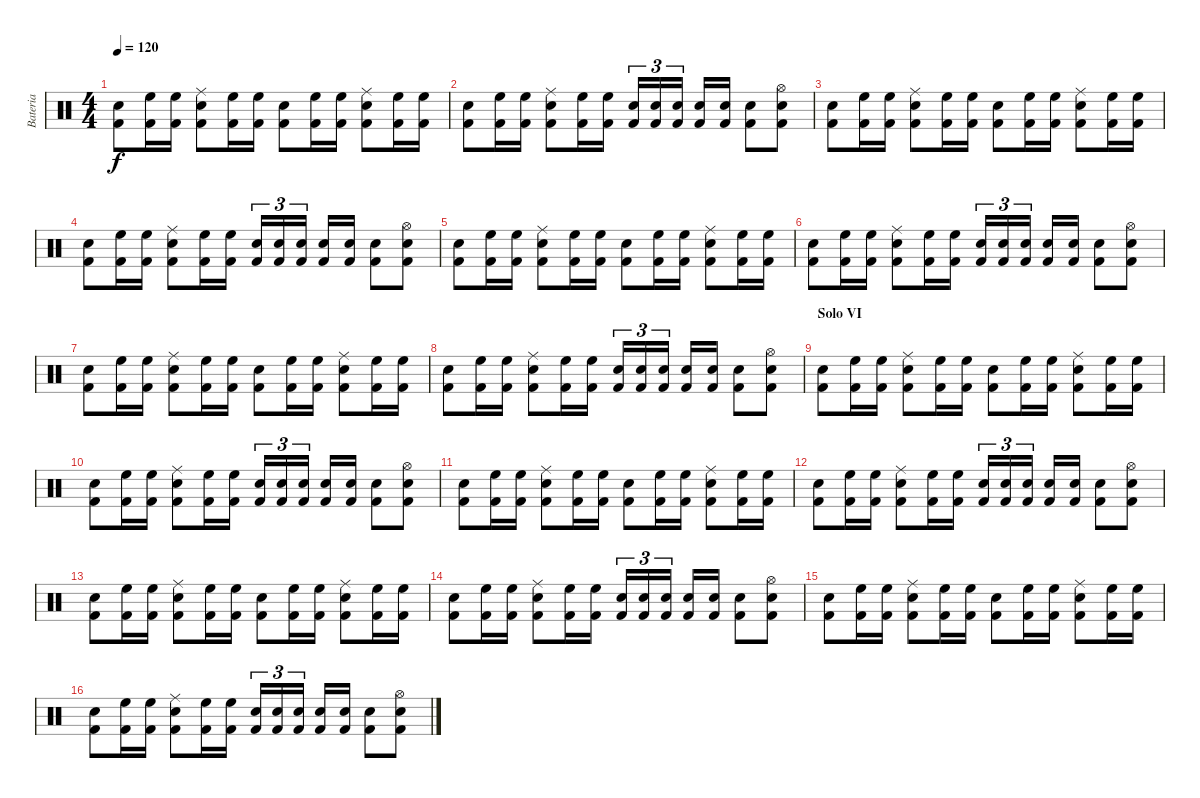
\track ("Bateria" "Bateria") {instrument percussion}
\staff {score}
\articulation defaults
\ts (4 4)
\tempo 120
\clef neutral
\ks c
("Snare (hit) 2" "Kick (hit) 2").8{dy f} ("High Floor Tom (hit)" "Kick (hit) 2").16 ("High Floor Tom (hit)" "Kick (hit) 2").16 ("Ride (middle)" "Snare (hit) 2" "Kick (hit) 2").8 ("High Floor Tom (hit)" "Kick (hit) 2").16 ("High Floor Tom (hit)" "Kick (hit) 2").16 ("Snare (hit) 2" "Kick (hit) 2").8 ("High Floor Tom (hit)" "Kick (hit) 2").16 ("High Floor Tom (hit)" "Kick (hit) 2").16 ("Ride (middle)" "Snare (hit) 2" "Kick (hit) 2").8 ("High Floor Tom (hit)" "Kick (hit) 2").16 ("High Floor Tom (hit)" "Kick (hit) 2").16 |
("Snare (hit) 2" "Kick (hit) 2").8 ("High Floor Tom (hit)" "Kick (hit) 2").16 ("High Floor Tom (hit)" "Kick (hit) 2").16 ("Ride (middle)" "Snare (hit) 2" "Kick (hit) 2").8 ("High Floor Tom (hit)" "Kick (hit) 2").16 ("High Floor Tom (hit)" "Kick (hit) 2").16 ("Snare (hit) 2" "Kick (hit) 2").16{tu (3 2)} ("Snare (hit) 2" "Kick (hit) 2").16{tu (3 2)} ("Snare (hit) 2" "Kick (hit) 2").16{tu (3 2)} ("Snare (hit) 2" "Kick (hit) 2").16 ("Snare (hit) 2" "Kick (hit) 2").16 ("Snare (hit) 2" "Kick (hit) 2").8 ("Hi-Hat (open)" "Snare (hit) 2" "Kick (hit) 2").8 |
("Snare (hit) 2" "Kick (hit) 2").8 ("High Floor Tom (hit)" "Kick (hit) 2").16 ("High Floor Tom (hit)" "Kick (hit) 2").16 ("Ride (middle)" "Snare (hit) 2" "Kick (hit) 2").8 ("High Floor Tom (hit)" "Kick (hit) 2").16 ("High Floor Tom (hit)" "Kick (hit) 2").16 ("Snare (hit) 2" "Kick (hit) 2").8 ("High Floor Tom (hit)" "Kick (hit) 2").16 ("High Floor Tom (hit)" "Kick (hit) 2").16 ("Ride (middle)" "Snare (hit) 2" "Kick (hit) 2").8 ("High Floor Tom (hit)" "Kick (hit) 2").16 ("High Floor Tom (hit)" "Kick (hit) 2").16 |
("Snare (hit) 2" "Kick (hit) 2").8 ("High Floor Tom (hit)" "Kick (hit) 2").16 ("High Floor Tom (hit)" "Kick (hit) 2").16 ("Ride (middle)" "Snare (hit) 2" "Kick (hit) 2").8 ("High Floor Tom (hit)" "Kick (hit) 2").16 ("High Floor Tom (hit)" "Kick (hit) 2").16 ("Snare (hit) 2" "Kick (hit) 2").16{tu (3 2)} ("Snare (hit) 2" "Kick (hit) 2").16{tu (3 2)} ("Snare (hit) 2" "Kick (hit) 2").16{tu (3 2)} ("Snare (hit) 2" "Kick (hit) 2").16 ("Snare (hit) 2" "Kick (hit) 2").16 ("Snare (hit) 2" "Kick (hit) 2").8 ("Hi-Hat (open)" "Snare (hit) 2" "Kick (hit) 2").8 |
("Snare (hit) 2" "Kick (hit) 2").8 ("High Floor Tom (hit)" "Kick (hit) 2").16 ("High Floor Tom (hit)" "Kick (hit) 2").16 ("Ride (middle)" "Snare (hit) 2" "Kick (hit) 2").8 ("High Floor Tom (hit)" "Kick (hit) 2").16 ("High Floor Tom (hit)" "Kick (hit) 2").16 ("Snare (hit) 2" "Kick (hit) 2").8 ("High Floor Tom (hit)" "Kick (hit) 2").16 ("High Floor Tom (hit)" "Kick (hit) 2").16 ("Ride (middle)" "Snare (hit) 2" "Kick (hit) 2").8 ("High Floor Tom (hit)" "Kick (hit) 2").16 ("High Floor Tom (hit)" "Kick (hit) 2").16 |
("Snare (hit) 2" "Kick (hit) 2").8 ("High Floor Tom (hit)" "Kick (hit) 2").16 ("High Floor Tom (hit)" "Kick (hit) 2").16 ("Ride (middle)" "Snare (hit) 2" "Kick (hit) 2").8 ("High Floor Tom (hit)" "Kick (hit) 2").16 ("High Floor Tom (hit)" "Kick (hit) 2").16 ("Snare (hit) 2" "Kick (hit) 2").16{tu (3 2)} ("Snare (hit) 2" "Kick (hit) 2").16{tu (3 2)} ("Snare (hit) 2" "Kick (hit) 2").16{tu (3 2)} ("Snare (hit) 2" "Kick (hit) 2").16 ("Snare (hit) 2" "Kick (hit) 2").16 ("Snare (hit) 2" "Kick (hit) 2").8 ("Hi-Hat (open)" "Snare (hit) 2" "Kick (hit) 2").8 |
("Snare (hit) 2" "Kick (hit) 2").8 ("High Floor Tom (hit)" "Kick (hit) 2").16 ("High Floor Tom (hit)" "Kick (hit) 2").16 ("Ride (middle)" "Snare (hit) 2" "Kick (hit) 2").8 ("High Floor Tom (hit)" "Kick (hit) 2").16 ("High Floor Tom (hit)" "Kick (hit) 2").16 ("Snare (hit) 2" "Kick (hit) 2").8 ("High Floor Tom (hit)" "Kick (hit) 2").16 ("High Floor Tom (hit)" "Kick (hit) 2").16 ("Ride (middle)" "Snare (hit) 2" "Kick (hit) 2").8 ("High Floor Tom (hit)" "Kick (hit) 2").16 ("High Floor Tom (hit)" "Kick (hit) 2").16 |
("Snare (hit) 2" "Kick (hit) 2").8 ("High Floor Tom (hit)" "Kick (hit) 2").16 ("High Floor Tom (hit)" "Kick (hit) 2").16 ("Ride (middle)" "Snare (hit) 2" "Kick (hit) 2").8 ("High Floor Tom (hit)" "Kick (hit) 2").16 ("High Floor Tom (hit)" "Kick (hit) 2").16 ("Snare (hit) 2" "Kick (hit) 2").16{tu (3 2)} ("Snare (hit) 2" "Kick (hit) 2").16{tu (3 2)} ("Snare (hit) 2" "Kick (hit) 2").16{tu (3 2)} ("Snare (hit) 2" "Kick (hit) 2").16 ("Snare (hit) 2" "Kick (hit) 2").16 ("Snare (hit) 2" "Kick (hit) 2").8 ("Hi-Hat (open)" "Snare (hit) 2" "Kick (hit) 2").8 |
\section ("" "Solo VI")
("Snare (hit) 2" "Kick (hit) 2").8 ("High Floor Tom (hit)" "Kick (hit) 2").16 ("High Floor Tom (hit)" "Kick (hit) 2").16 ("Ride (middle)" "Snare (hit) 2" "Kick (hit) 2").8 ("High Floor Tom (hit)" "Kick (hit) 2").16 ("High Floor Tom (hit)" "Kick (hit) 2").16 ("Snare (hit) 2" "Kick (hit) 2").8 ("High Floor Tom (hit)" "Kick (hit) 2").16 ("High Floor Tom (hit)" "Kick (hit) 2").16 ("Ride (middle)" "Snare (hit) 2" "Kick (hit) 2").8 ("High Floor Tom (hit)" "Kick (hit) 2").16 ("High Floor Tom (hit)" "Kick (hit) 2").16 |
("Snare (hit) 2" "Kick (hit) 2").8 ("High Floor Tom (hit)" "Kick (hit) 2").16 ("High Floor Tom (hit)" "Kick (hit) 2").16 ("Ride (middle)" "Snare (hit) 2" "Kick (hit) 2").8 ("High Floor Tom (hit)" "Kick (hit) 2").16 ("High Floor Tom (hit)" "Kick (hit) 2").16 ("Snare (hit) 2" "Kick (hit) 2").16{tu (3 2)} ("Snare (hit) 2" "Kick (hit) 2").16{tu (3 2)} ("Snare (hit) 2" "Kick (hit) 2").16{tu (3 2)} ("Snare (hit) 2" "Kick (hit) 2").16 ("Snare (hit) 2" "Kick (hit) 2").16 ("Snare (hit) 2" "Kick (hit) 2").8 ("Hi-Hat (open)" "Snare (hit) 2" "Kick (hit) 2").8 |
("Snare (hit) 2" "Kick (hit) 2").8 ("High Floor Tom (hit)" "Kick (hit) 2").16 ("High Floor Tom (hit)" "Kick (hit) 2").16 ("Ride (middle)" "Snare (hit) 2" "Kick (hit) 2").8 ("High Floor Tom (hit)" "Kick (hit) 2").16 ("High Floor Tom (hit)" "Kick (hit) 2").16 ("Snare (hit) 2" "Kick (hit) 2").8 ("High Floor Tom (hit)" "Kick (hit) 2").16 ("High Floor Tom (hit)" "Kick (hit) 2").16 ("Ride (middle)" "Snare (hit) 2" "Kick (hit) 2").8 ("High Floor Tom (hit)" "Kick (hit) 2").16 ("High Floor Tom (hit)" "Kick (hit) 2").16 |
("Snare (hit) 2" "Kick (hit) 2").8 ("High Floor Tom (hit)" "Kick (hit) 2").16 ("High Floor Tom (hit)" "Kick (hit) 2").16 ("Ride (middle)" "Snare (hit) 2" "Kick (hit) 2").8 ("High Floor Tom (hit)" "Kick (hit) 2").16 ("High Floor Tom (hit)" "Kick (hit) 2").16 ("Snare (hit) 2" "Kick (hit) 2").16{tu (3 2)} ("Snare (hit) 2" "Kick (hit) 2").16{tu (3 2)} ("Snare (hit) 2" "Kick (hit) 2").16{tu (3 2)} ("Snare (hit) 2" "Kick (hit) 2").16 ("Snare (hit) 2" "Kick (hit) 2").16 ("Snare (hit) 2" "Kick (hit) 2").8 ("Hi-Hat (open)" "Snare (hit) 2" "Kick (hit) 2").8 |
("Snare (hit) 2" "Kick (hit) 2").8 ("High Floor Tom (hit)" "Kick (hit) 2").16 ("High Floor Tom (hit)" "Kick (hit) 2").16 ("Ride (middle)" "Snare (hit) 2" "Kick (hit) 2").8 ("High Floor Tom (hit)" "Kick (hit) 2").16 ("High Floor Tom (hit)" "Kick (hit) 2").16 ("Snare (hit) 2" "Kick (hit) 2").8 ("High Floor Tom (hit)" "Kick (hit) 2").16 ("High Floor Tom (hit)" "Kick (hit) 2").16 ("Ride (middle)" "Snare (hit) 2" "Kick (hit) 2").8 ("High Floor Tom (hit)" "Kick (hit) 2").16 ("High Floor Tom (hit)" "Kick (hit) 2").16 |
("Snare (hit) 2" "Kick (hit) 2").8 ("High Floor Tom (hit)" "Kick (hit) 2").16 ("High Floor Tom (hit)" "Kick (hit) 2").16 ("Ride (middle)" "Snare (hit) 2" "Kick (hit) 2").8 ("High Floor Tom (hit)" "Kick (hit) 2").16 ("High Floor Tom (hit)" "Kick (hit) 2").16 ("Snare (hit) 2" "Kick (hit) 2").16{tu (3 2)} ("Snare (hit) 2" "Kick (hit) 2").16{tu (3 2)} ("Snare (hit) 2" "Kick (hit) 2").16{tu (3 2)} ("Snare (hit) 2" "Kick (hit) 2").16 ("Snare (hit) 2" "Kick (hit) 2").16 ("Snare (hit) 2" "Kick (hit) 2").8 ("Hi-Hat (open)" "Snare (hit) 2" "Kick (hit) 2").8 |
("Snare (hit) 2" "Kick (hit) 2").8 ("High Floor Tom (hit)" "Kick (hit) 2").16 ("High Floor Tom (hit)" "Kick (hit) 2").16 ("Ride (middle)" "Snare (hit) 2" "Kick (hit) 2").8 ("High Floor Tom (hit)" "Kick (hit) 2").16 ("High Floor Tom (hit)" "Kick (hit) 2").16 ("Snare (hit) 2" "Kick (hit) 2").8 ("High Floor Tom (hit)" "Kick (hit) 2").16 ("High Floor Tom (hit)" "Kick (hit) 2").16 ("Ride (middle)" "Snare (hit) 2" "Kick (hit) 2").8 ("High Floor Tom (hit)" "Kick (hit) 2").16 ("High Floor Tom (hit)" "Kick (hit) 2").16 |
("Snare (hit) 2" "Kick (hit) 2").8 ("High Floor Tom (hit)" "Kick (hit) 2").16 ("High Floor Tom (hit)" "Kick (hit) 2").16 ("Ride (middle)" "Snare (hit) 2" "Kick (hit) 2").8 ("High Floor Tom (hit)" "Kick (hit) 2").16 ("High Floor Tom (hit)" "Kick (hit) 2").16 ("Snare (hit) 2" "Kick (hit) 2").16{tu (3 2)} ("Snare (hit) 2" "Kick (hit) 2").16{tu (3 2)} ("Snare (hit) 2" "Kick (hit) 2").16{tu (3 2)} ("Snare (hit) 2" "Kick (hit) 2").16 ("Snare (hit) 2" "Kick (hit) 2").16 ("Snare (hit) 2" "Kick (hit) 2").8 ("Hi-Hat (open)" "Snare (hit) 2" "Kick (hit) 2").8
